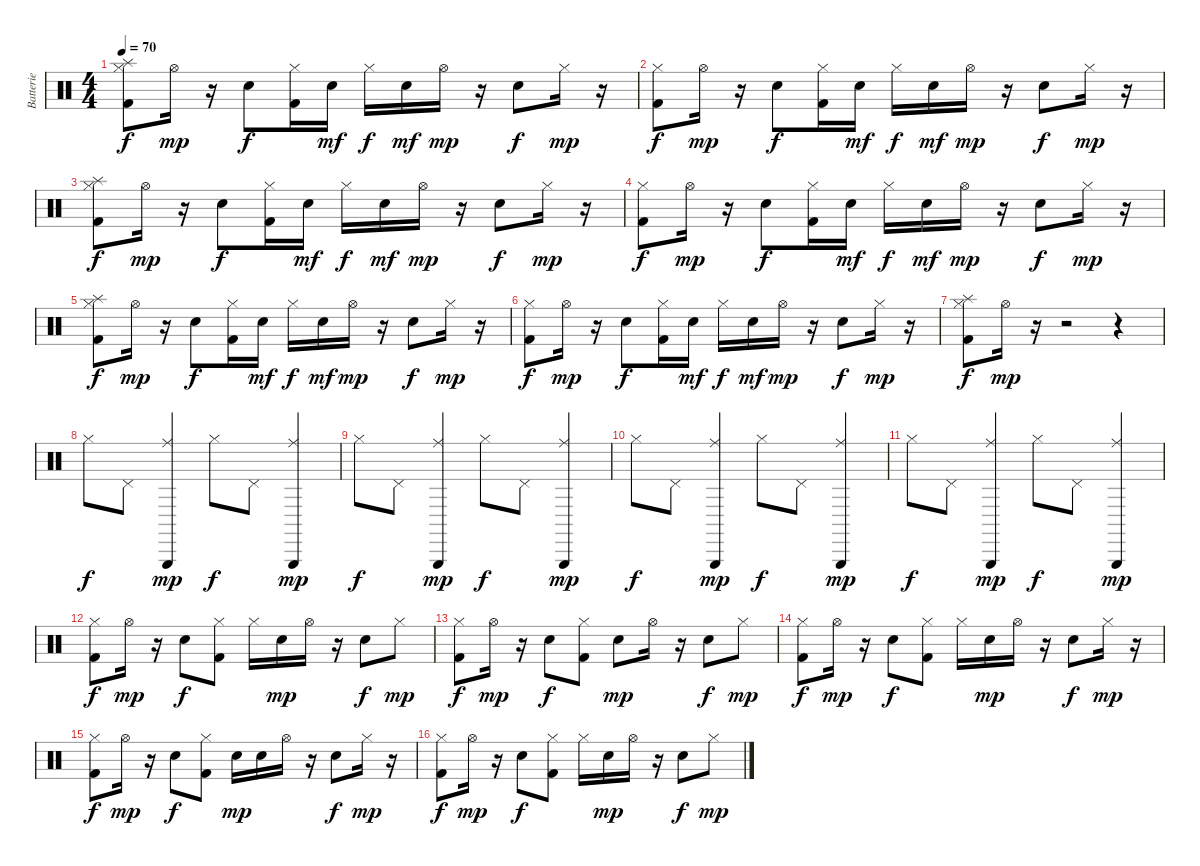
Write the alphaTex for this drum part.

\track ("Batterie" "Batterie") {instrument percussion}
\staff {score}
\articulation defaults
\ts (4 4)
\tempo 70
\clef neutral
\ks c
("Kick (hit) 2" "Hi-Hat (closed)" "Splash (hit)").8{dy f} "Hi-Hat (open)".16{dy mp} r.16 "Electric Snare (hit)".8{dy f} ("Kick (hit) 2" "Hi-Hat (closed)").16 "Electric Snare (hit)".16{dy mf} "Hi-Hat (closed)".16{dy f} "Electric Snare (hit)".16{dy mf} "Hi-Hat (open)".16{dy mp} r.16 "Electric Snare (hit)".8{dy f} "Hi-Hat (closed)".16{dy mp} r.16 |
("Kick (hit) 2" "Hi-Hat (closed)").8{dy f} "Hi-Hat (open)".16{dy mp} r.16 "Electric Snare (hit)".8{dy f} ("Kick (hit) 2" "Hi-Hat (closed)").16 "Electric Snare (hit)".16{dy mf} "Hi-Hat (closed)".16{dy f} "Electric Snare (hit)".16{dy mf} "Hi-Hat (open)".16{dy mp} r.16 "Electric Snare (hit)".8{dy f} "Hi-Hat (closed)".16{dy mp} r.16 |
("Kick (hit) 2" "Hi-Hat (closed)" "Splash (hit)").8{dy f} "Hi-Hat (open)".16{dy mp} r.16 "Electric Snare (hit)".8{dy f} ("Kick (hit) 2" "Hi-Hat (closed)").16 "Electric Snare (hit)".16{dy mf} "Hi-Hat (closed)".16{dy f} "Electric Snare (hit)".16{dy mf} "Hi-Hat (open)".16{dy mp} r.16 "Electric Snare (hit)".8{dy f} "Hi-Hat (closed)".16{dy mp} r.16 |
("Kick (hit) 2" "Hi-Hat (closed)").8{dy f} "Hi-Hat (open)".16{dy mp} r.16 "Electric Snare (hit)".8{dy f} ("Kick (hit) 2" "Hi-Hat (closed)").16 "Electric Snare (hit)".16{dy mf} "Hi-Hat (closed)".16{dy f} "Electric Snare (hit)".16{dy mf} "Hi-Hat (open)".16{dy mp} r.16 "Electric Snare (hit)".8{dy f} "Hi-Hat (closed)".16{dy mp} r.16 |
("Kick (hit) 2" "Hi-Hat (closed)" "Splash (hit)").8{dy f} "Hi-Hat (open)".16{dy mp} r.16 "Electric Snare (hit)".8{dy f} ("Kick (hit) 2" "Hi-Hat (closed)").16 "Electric Snare (hit)".16{dy mf} "Hi-Hat (closed)".16{dy f} "Electric Snare (hit)".16{dy mf} "Hi-Hat (open)".16{dy mp} r.16 "Electric Snare (hit)".8{dy f} "Hi-Hat (closed)".16{dy mp} r.16 |
("Kick (hit) 2" "Hi-Hat (closed)").8{dy f} "Hi-Hat (open)".16{dy mp} r.16 "Electric Snare (hit)".8{dy f} ("Kick (hit) 2" "Hi-Hat (closed)").16 "Electric Snare (hit)".16{dy mf} "Hi-Hat (closed)".16{dy f} "Electric Snare (hit)".16{dy mf} "Hi-Hat (open)".16{dy mp} r.16 "Electric Snare (hit)".8{dy f} "Hi-Hat (closed)".16{dy mp} r.16 |
("Kick (hit) 2" "Hi-Hat (closed)" "Splash (hit)").8{dy f} "Hi-Hat (open)".16{dy mp} r.16 r.2 r.4 |
"Hi-Hat (closed)".8{dy f} "Pedal Hi-Hat (hit)".8 ("Ride (middle)" "Triangle (hit)").4{dy mp} "Hi-Hat (closed)".8{dy f} "Pedal Hi-Hat (hit)".8 ("Ride (middle)" "Triangle (hit)").4{dy mp} |
"Hi-Hat (closed)".8{dy f} "Pedal Hi-Hat (hit)".8 ("Ride (middle)" "Triangle (hit)").4{dy mp} "Hi-Hat (closed)".8{dy f} "Pedal Hi-Hat (hit)".8 ("Ride (middle)" "Triangle (hit)").4{dy mp} |
"Hi-Hat (closed)".8{dy f} "Pedal Hi-Hat (hit)".8 ("Ride (middle)" "Triangle (hit)").4{dy mp} "Hi-Hat (closed)".8{dy f} "Pedal Hi-Hat (hit)".8 ("Ride (middle)" "Triangle (hit)").4{dy mp} |
"Hi-Hat (closed)".8{dy f} "Pedal Hi-Hat (hit)".8 ("Ride (middle)" "Triangle (hit)").4{dy mp} "Hi-Hat (closed)".8{dy f} "Pedal Hi-Hat (hit)".8 ("Ride (middle)" "Triangle (hit)").4{dy mp} |
("Kick (hit) 2" "Hi-Hat (closed)").8{dy f} "Hi-Hat (open)".16{dy mp} r.16 "Electric Snare (hit)".8{dy f} ("Kick (hit) 2" "Hi-Hat (closed)").8 "Hi-Hat (closed)".16 "Electric Snare (hit)".16{dy mp} "Hi-Hat (open)".16 r.16 "Electric Snare (hit)".8{dy f} "Hi-Hat (closed)".8{dy mp} |
("Kick (hit) 2" "Hi-Hat (closed)").8{dy f} "Hi-Hat (open)".16{dy mp} r.16 "Electric Snare (hit)".8{dy f} ("Kick (hit) 2" "Hi-Hat (closed)").8 "Electric Snare (hit)".8{dy mp} "Hi-Hat (open)".16 r.16 "Electric Snare (hit)".8{dy f} "Hi-Hat (closed)".8{dy mp} |
("Kick (hit) 2" "Hi-Hat (closed)").8{dy f} "Hi-Hat (open)".16{dy mp} r.16 "Electric Snare (hit)".8{dy f} ("Kick (hit) 2" "Hi-Hat (closed)").8 "Hi-Hat (closed)".16 "Electric Snare (hit)".16{dy mp} "Hi-Hat (open)".16 r.16 "Electric Snare (hit)".8{dy f} "Hi-Hat (closed)".16{dy mp} r.16 |
("Kick (hit) 2" "Hi-Hat (closed)").8{dy f} "Hi-Hat (open)".16{dy mp} r.16 "Electric Snare (hit)".8{dy f} ("Kick (hit) 2" "Hi-Hat (closed)").8 "Electric Snare (hit)".16{dy mp} "Electric Snare (hit)".16 "Hi-Hat (open)".16 r.16 "Electric Snare (hit)".8{dy f} "Hi-Hat (closed)".16{dy mp} r.16 |
("Kick (hit) 2" "Hi-Hat (closed)").8{dy f} "Hi-Hat (open)".16{dy mp} r.16 "Electric Snare (hit)".8{dy f} ("Kick (hit) 2" "Hi-Hat (closed)").8 "Hi-Hat (closed)".16 "Electric Snare (hit)".16{dy mp} "Hi-Hat (open)".16 r.16 "Electric Snare (hit)".8{dy f} "Hi-Hat (closed)".8{dy mp}
